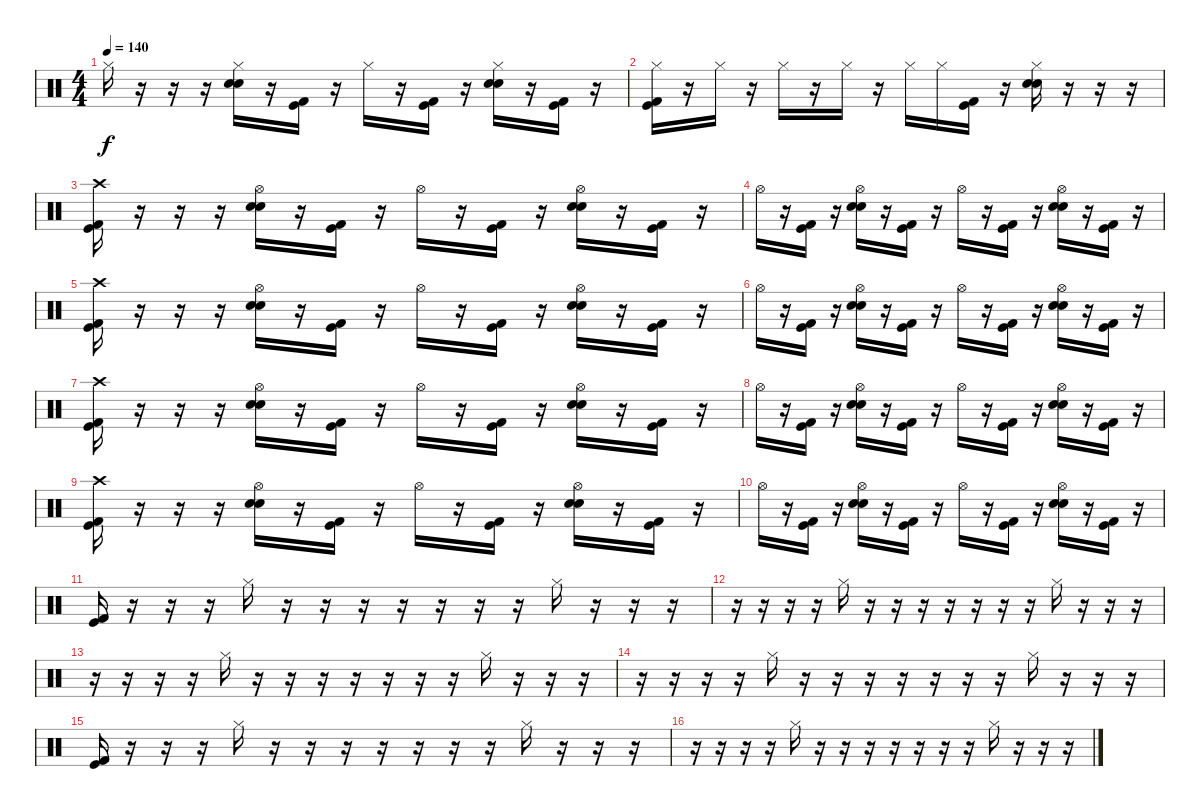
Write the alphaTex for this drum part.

\track "" {instrument percussion}
\staff {score}
\articulation defaults
\ts (4 4)
\tempo 140
\clef neutral
\ks c "Hi-Hat (closed)".16{dy f}
r.16 r.16 r.16 ("Hi-Hat (closed)" "Electric Snare (hit)" "Electric Snare (hit)").16 r.16 ("Kick (hit)" "Kick (hit) 2").16 r.16 "Hi-Hat (closed)".16 r.16 ("Kick (hit)" "Kick (hit) 2").16 r.16 ("Hi-Hat (closed)" "Electric Snare (hit)" "Electric Snare (hit)").16 r.16 ("Kick (hit)" "Kick (hit) 2").16 r.16 |
("Hi-Hat (closed)" "Kick (hit)" "Kick (hit) 2").16 r.16 "Hi-Hat (closed)".16 r.16 "Hi-Hat (closed)".16 r.16 "Hi-Hat (closed)".16 r.16 "Hi-Hat (closed)".16 "Hi-Hat (closed)".16 ("Kick (hit)" "Kick (hit) 2").16 r.16 ("Hi-Hat (closed)" "Electric Snare (hit)" "Electric Snare (hit)").16 r.16 r.16 r.16 |
("Crash high (hit)" "Kick (hit)" "Kick (hit) 2").16 r.16 r.16 r.16 ("Hi-Hat (open)" "Electric Snare (hit)" "Electric Snare (hit)").16 r.16 ("Kick (hit)" "Kick (hit) 2").16 r.16 "Hi-Hat (open)".16 r.16 ("Kick (hit)" "Kick (hit) 2").16 r.16 ("Hi-Hat (open)" "Electric Snare (hit)" "Electric Snare (hit)").16 r.16 ("Kick (hit)" "Kick (hit) 2").16 r.16 |
"Hi-Hat (open)".16 r.16 ("Kick (hit)" "Kick (hit) 2").16 r.16 ("Hi-Hat (open)" "Electric Snare (hit)" "Electric Snare (hit)").16 r.16 ("Kick (hit)" "Kick (hit) 2").16 r.16 "Hi-Hat (open)".16 r.16 ("Kick (hit)" "Kick (hit) 2").16 r.16 ("Hi-Hat (open)" "Electric Snare (hit)" "Electric Snare (hit)").16 r.16 ("Kick (hit)" "Kick (hit) 2").16 r.16 |
("Crash high (hit)" "Kick (hit)" "Kick (hit) 2").16 r.16 r.16 r.16 ("Hi-Hat (open)" "Electric Snare (hit)" "Electric Snare (hit)").16 r.16 ("Kick (hit)" "Kick (hit) 2").16 r.16 "Hi-Hat (open)".16 r.16 ("Kick (hit)" "Kick (hit) 2").16 r.16 ("Hi-Hat (open)" "Electric Snare (hit)" "Electric Snare (hit)").16 r.16 ("Kick (hit)" "Kick (hit) 2").16 r.16 |
"Hi-Hat (open)".16 r.16 ("Kick (hit)" "Kick (hit) 2").16 r.16 ("Hi-Hat (open)" "Electric Snare (hit)" "Electric Snare (hit)").16 r.16 ("Kick (hit)" "Kick (hit) 2").16 r.16 "Hi-Hat (open)".16 r.16 ("Kick (hit)" "Kick (hit) 2").16 r.16 ("Hi-Hat (open)" "Electric Snare (hit)" "Electric Snare (hit)").16 r.16 ("Kick (hit)" "Kick (hit) 2").16 r.16 |
("Crash high (hit)" "Kick (hit)" "Kick (hit) 2").16 r.16 r.16 r.16 ("Hi-Hat (open)" "Electric Snare (hit)" "Electric Snare (hit)").16 r.16 ("Kick (hit)" "Kick (hit) 2").16 r.16 "Hi-Hat (open)".16 r.16 ("Kick (hit)" "Kick (hit) 2").16 r.16 ("Hi-Hat (open)" "Electric Snare (hit)" "Electric Snare (hit)").16 r.16 ("Kick (hit)" "Kick (hit) 2").16 r.16 |
"Hi-Hat (open)".16 r.16 ("Kick (hit)" "Kick (hit) 2").16 r.16 ("Hi-Hat (open)" "Electric Snare (hit)" "Electric Snare (hit)").16 r.16 ("Kick (hit)" "Kick (hit) 2").16 r.16 "Hi-Hat (open)".16 r.16 ("Kick (hit)" "Kick (hit) 2").16 r.16 ("Hi-Hat (open)" "Electric Snare (hit)" "Electric Snare (hit)").16 r.16 ("Kick (hit)" "Kick (hit) 2").16 r.16 |
("Crash high (hit)" "Kick (hit)" "Kick (hit) 2").16 r.16 r.16 r.16 ("Hi-Hat (open)" "Electric Snare (hit)" "Electric Snare (hit)").16 r.16 ("Kick (hit)" "Kick (hit) 2").16 r.16 "Hi-Hat (open)".16 r.16 ("Kick (hit)" "Kick (hit) 2").16 r.16 ("Hi-Hat (open)" "Electric Snare (hit)" "Electric Snare (hit)").16 r.16 ("Kick (hit)" "Kick (hit) 2").16 r.16 |
"Hi-Hat (open)".16 r.16 ("Kick (hit)" "Kick (hit) 2").16 r.16 ("Hi-Hat (open)" "Electric Snare (hit)" "Electric Snare (hit)").16 r.16 ("Kick (hit)" "Kick (hit) 2").16 r.16 "Hi-Hat (open)".16 r.16 ("Kick (hit)" "Kick (hit) 2").16 r.16 ("Hi-Hat (open)" "Electric Snare (hit)" "Electric Snare (hit)").16 r.16 ("Kick (hit)" "Kick (hit) 2").16 r.16 |
("Kick (hit)" "Kick (hit) 2").16 r.16 r.16 r.16 "Hi-Hat (closed)".16 r.16 r.16 r.16 r.16 r.16 r.16 r.16 "Hi-Hat (closed)".16 r.16 r.16 r.16 |
r.16 r.16 r.16 r.16 "Hi-Hat (closed)".16 r.16 r.16 r.16 r.16 r.16 r.16 r.16 "Hi-Hat (closed)".16 r.16 r.16 r.16 |
r.16 r.16 r.16 r.16 "Hi-Hat (closed)".16 r.16 r.16 r.16 r.16 r.16 r.16 r.16 "Hi-Hat (closed)".16 r.16 r.16 r.16 |
r.16 r.16 r.16 r.16 "Hi-Hat (closed)".16 r.16 r.16 r.16 r.16 r.16 r.16 r.16 "Hi-Hat (closed)".16 r.16 r.16 r.16 |
("Kick (hit)" "Kick (hit) 2").16 r.16 r.16 r.16 "Hi-Hat (closed)".16 r.16 r.16 r.16 r.16 r.16 r.16 r.16 "Hi-Hat (closed)".16 r.16 r.16 r.16 |
r.16 r.16 r.16 r.16 "Hi-Hat (closed)".16 r.16 r.16 r.16 r.16 r.16 r.16 r.16 "Hi-Hat (closed)".16 r.16 r.16 r.16
